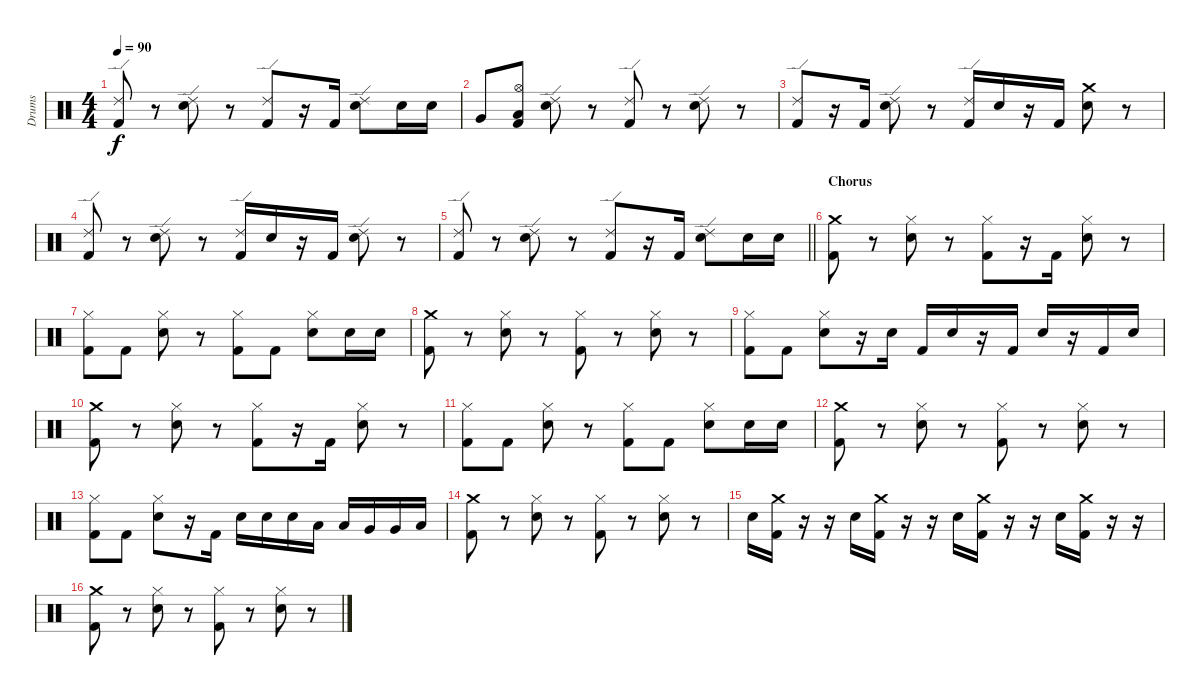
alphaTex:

\track ("Drums" "Drums") {instrument percussion}
\staff {score}
\articulation defaults
\ts (4 4)
\tempo 90
\clef neutral
\ks c
("Ride (edge) 2" "Kick (hit) 2").8{dy f} r.8 ("Ride (edge) 2" "Snare (hit) 2").8 r.8 ("Ride (edge) 2" "Kick (hit) 2").8 r.16 "Kick (hit) 2".16 ("Ride (edge) 2" "Snare (hit) 2").8 "Snare (hit) 2".16 "Snare (hit) 2".16 |
"Very Low Tom (hit)".8 ("Hi-Hat (open)" "Low Floor Tom (hit)" "Kick (hit) 2").8 ("Ride (edge) 2" "Snare (hit) 2").8 r.8 ("Ride (edge) 2" "Kick (hit) 2").8 r.8 ("Ride (edge) 2" "Snare (hit) 2").8 r.8 |
("Ride (edge) 2" "Kick (hit) 2").8 r.16 "Kick (hit) 2".16 ("Ride (edge) 2" "Snare (hit) 2").8 r.8 ("Ride (edge) 2" "Kick (hit) 2").16 "Snare (hit) 2".16 r.16 "Kick (hit) 2".16 ("Crash medium (hit)" "Snare (hit) 2").8 r.8 |
("Ride (edge) 2" "Kick (hit) 2").8 r.8 ("Ride (edge) 2" "Snare (hit) 2").8 r.8 ("Ride (edge) 2" "Kick (hit) 2").16 "Snare (hit) 2".16 r.16 "Kick (hit) 2".16 ("Ride (edge) 2" "Snare (hit) 2").8 r.8 |
\barLineRight lightlight
("Ride (edge) 2" "Kick (hit) 2").8 r.8 ("Ride (edge) 2" "Snare (hit) 2").8 r.8 ("Ride (edge) 2" "Kick (hit) 2").8 r.16 "Kick (hit) 2".16 ("Ride (edge) 2" "Snare (hit) 2").8 "Snare (hit) 2".16 "Snare (hit) 2".16 |
\section ("" "Chorus")
("Crash medium (hit)" "Kick (hit) 2").8 r.8 ("Hi-Hat (closed)" "Snare (hit) 2").8 r.8 ("Hi-Hat (closed)" "Kick (hit) 2").8 r.16 "Kick (hit) 2".16 ("Hi-Hat (closed)" "Snare (hit) 2").8 r.8 |
("Hi-Hat (closed)" "Kick (hit) 2").8 "Kick (hit) 2".8 ("Hi-Hat (closed)" "Snare (hit) 2").8 r.8 ("Hi-Hat (closed)" "Kick (hit) 2").8 "Kick (hit) 2".8 ("Hi-Hat (closed)" "Snare (hit) 2").8 "Snare (hit) 2".16 "Snare (hit) 2".16 |
("Crash medium (hit)" "Kick (hit) 2").8 r.8 ("Hi-Hat (closed)" "Snare (hit) 2").8 r.8 ("Hi-Hat (closed)" "Kick (hit) 2").8 r.8 ("Hi-Hat (closed)" "Snare (hit) 2").8 r.8 |
("Hi-Hat (closed)" "Kick (hit) 2").8 "Kick (hit) 2".8 ("Hi-Hat (closed)" "Snare (hit) 2").8 r.16 "Snare (hit) 2".16 "Kick (hit) 2".16 "Snare (hit) 2".16 r.16 "Kick (hit) 2".16 "Snare (hit) 2".16 r.16 "Kick (hit) 2".16 "Snare (hit) 2".16 |
("Crash medium (hit)" "Kick (hit) 2").8 r.8 ("Hi-Hat (closed)" "Snare (hit) 2").8 r.8 ("Hi-Hat (closed)" "Kick (hit) 2").8 r.16 "Kick (hit) 2".16 ("Hi-Hat (closed)" "Snare (hit) 2").8 r.8 |
("Hi-Hat (closed)" "Kick (hit) 2").8 "Kick (hit) 2".8 ("Hi-Hat (closed)" "Snare (hit) 2").8 r.8 ("Hi-Hat (closed)" "Kick (hit) 2").8 "Kick (hit) 2".8 ("Hi-Hat (closed)" "Snare (hit) 2").8 "Snare (hit) 2".16 "Snare (hit) 2".16 |
("Crash medium (hit)" "Kick (hit) 2").8 r.8 ("Hi-Hat (closed)" "Snare (hit) 2").8 r.8 ("Hi-Hat (closed)" "Kick (hit) 2").8 r.8 ("Hi-Hat (closed)" "Snare (hit) 2").8 r.8 |
("Hi-Hat (closed)" "Kick (hit) 2").8 "Kick (hit) 2".8 ("Hi-Hat (closed)" "Snare (hit) 2").8 r.16 "Kick (hit) 2".16 "Snare (hit) 2".16 "Snare (hit) 2".16 "Snare (hit) 2".16 "Low Tom (hit)".16 "Low Tom (hit)".16 "Very Low Tom (hit)".16 "Very Low Tom (hit)".16 "Low Floor Tom (hit)".16 |
("Crash medium (hit)" "Kick (hit) 2").8 r.8 ("Hi-Hat (closed)" "Snare (hit) 2").8 r.8 ("Hi-Hat (closed)" "Kick (hit) 2").8 r.8 ("Hi-Hat (closed)" "Snare (hit) 2").8 r.8 |
"Snare (hit) 2".16 ("Crash medium (hit)" "Kick (hit) 2").16 r.16 r.16 "Snare (hit) 2".16 ("Crash medium (hit)" "Kick (hit) 2").16 r.16 r.16 "Snare (hit) 2".16 ("Crash medium (hit)" "Kick (hit) 2").16 r.16 r.16 "Snare (hit) 2".16 ("Crash medium (hit)" "Kick (hit) 2").16 r.16 r.16 |
("Crash medium (hit)" "Kick (hit) 2").8 r.8 ("Hi-Hat (closed)" "Snare (hit) 2").8 r.8 ("Hi-Hat (closed)" "Kick (hit) 2").8 r.8 ("Hi-Hat (closed)" "Snare (hit) 2").8 r.8
